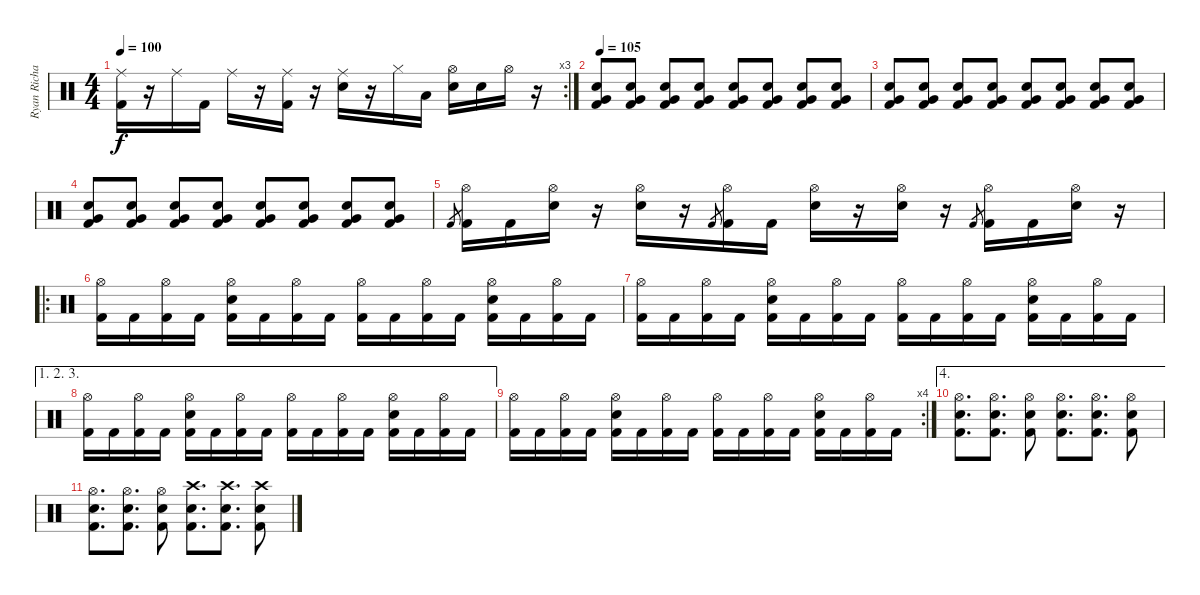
\track ("Ryan Richards" "Ryan Richa") {instrument percussion}
\staff {score}
\articulation defaults
\rc 3
\ts (4 4)
\tempo 100
\clef neutral
\ks c
("Ride (middle)" "Kick (hit) 2").16{dy f} r.16 "Ride (middle)".16 "Kick (hit) 2".16 "Ride (middle)".16 r.16 ("Ride (middle)" "Kick (hit) 2").16 r.16 ("Ride (middle)" "Snare (hit) 2").16 r.16 "Hi-Hat (closed)".16 "Low Floor Tom (hit)".16 ("Hi-Hat (open)" "Snare (hit) 2").16 "Snare (hit) 2".16 "Hi-Hat (open)".16 r.16 |
\tempo 105
("Snare (hit) 2" "Very Low Tom (hit)" "Kick (hit) 2").8 ("Snare (hit) 2" "Very Low Tom (hit)" "Kick (hit) 2").8 ("Snare (hit) 2" "Very Low Tom (hit)" "Kick (hit) 2").8 ("Snare (hit) 2" "Very Low Tom (hit)" "Kick (hit) 2").8 ("Snare (hit) 2" "Very Low Tom (hit)" "Kick (hit) 2").8 ("Snare (hit) 2" "Very Low Tom (hit)" "Kick (hit) 2").8 ("Snare (hit) 2" "Very Low Tom (hit)" "Kick (hit) 2").8 ("Snare (hit) 2" "Very Low Tom (hit)" "Kick (hit) 2").8 |
("Snare (hit) 2" "Very Low Tom (hit)" "Kick (hit) 2").8 ("Snare (hit) 2" "Very Low Tom (hit)" "Kick (hit) 2").8 ("Snare (hit) 2" "Very Low Tom (hit)" "Kick (hit) 2").8 ("Snare (hit) 2" "Very Low Tom (hit)" "Kick (hit) 2").8 ("Snare (hit) 2" "Very Low Tom (hit)" "Kick (hit) 2").8 ("Snare (hit) 2" "Very Low Tom (hit)" "Kick (hit) 2").8 ("Snare (hit) 2" "Very Low Tom (hit)" "Kick (hit) 2").8 ("Snare (hit) 2" "Very Low Tom (hit)" "Kick (hit) 2").8 |
("Snare (hit) 2" "Very Low Tom (hit)" "Kick (hit) 2").8 ("Snare (hit) 2" "Very Low Tom (hit)" "Kick (hit) 2").8 ("Snare (hit) 2" "Very Low Tom (hit)" "Kick (hit) 2").8 ("Snare (hit) 2" "Very Low Tom (hit)" "Kick (hit) 2").8 ("Snare (hit) 2" "Very Low Tom (hit)" "Kick (hit) 2").8 ("Snare (hit) 2" "Very Low Tom (hit)" "Kick (hit) 2").8 ("Snare (hit) 2" "Very Low Tom (hit)" "Kick (hit) 2").8 ("Snare (hit) 2" "Very Low Tom (hit)" "Kick (hit) 2").8 |
"Kick (hit) 2".8{gr} ("Hi-Hat (open)" "Kick (hit) 2").16 "Kick (hit) 2".16 ("Hi-Hat (open)" "Snare (hit) 2").16 r.16 ("Hi-Hat (open)" "Snare (hit) 2").16 r.16 "Kick (hit) 2".8{gr} ("Hi-Hat (open)" "Kick (hit) 2").16 "Kick (hit) 2".16 ("Hi-Hat (open)" "Snare (hit) 2").16 r.16 ("Hi-Hat (open)" "Snare (hit) 2").16 r.16 "Kick (hit) 2".8{gr} ("Hi-Hat (open)" "Kick (hit) 2").16 "Kick (hit) 2".16 ("Hi-Hat (open)" "Snare (hit) 2").16 r.16 |
\ro
("Hi-Hat (open)" "Kick (hit) 2").16 "Kick (hit) 2".16 ("Hi-Hat (open)" "Kick (hit) 2").16 "Kick (hit) 2".16 ("Hi-Hat (open)" "Snare (hit) 2" "Kick (hit) 2").16 "Kick (hit) 2".16 ("Hi-Hat (open)" "Kick (hit) 2").16 "Kick (hit) 2".16 ("Hi-Hat (open)" "Kick (hit) 2").16 "Kick (hit) 2".16 ("Hi-Hat (open)" "Kick (hit) 2").16 "Kick (hit) 2".16 ("Hi-Hat (open)" "Snare (hit) 2" "Kick (hit) 2").16 "Kick (hit) 2".16 ("Hi-Hat (open)" "Kick (hit) 2").16 "Kick (hit) 2".16 |
("Hi-Hat (open)" "Kick (hit) 2").16 "Kick (hit) 2".16 ("Hi-Hat (open)" "Kick (hit) 2").16 "Kick (hit) 2".16 ("Hi-Hat (open)" "Snare (hit) 2" "Kick (hit) 2").16 "Kick (hit) 2".16 ("Hi-Hat (open)" "Kick (hit) 2").16 "Kick (hit) 2".16 ("Hi-Hat (open)" "Kick (hit) 2").16 "Kick (hit) 2".16 ("Hi-Hat (open)" "Kick (hit) 2").16 "Kick (hit) 2".16 ("Hi-Hat (open)" "Snare (hit) 2" "Kick (hit) 2").16 "Kick (hit) 2".16 ("Hi-Hat (open)" "Kick (hit) 2").16 "Kick (hit) 2".16 |
\ae (1 2 3)
("Hi-Hat (open)" "Kick (hit) 2").16 "Kick (hit) 2".16 ("Hi-Hat (open)" "Kick (hit) 2").16 "Kick (hit) 2".16 ("Hi-Hat (open)" "Snare (hit) 2" "Kick (hit) 2").16 "Kick (hit) 2".16 ("Hi-Hat (open)" "Kick (hit) 2").16 "Kick (hit) 2".16 ("Hi-Hat (open)" "Kick (hit) 2").16 "Kick (hit) 2".16 ("Hi-Hat (open)" "Kick (hit) 2").16 "Kick (hit) 2".16 ("Hi-Hat (open)" "Snare (hit) 2" "Kick (hit) 2").16 "Kick (hit) 2".16 ("Hi-Hat (open)" "Kick (hit) 2").16 "Kick (hit) 2".16 |
\rc 4
("Hi-Hat (open)" "Kick (hit) 2").16 "Kick (hit) 2".16 ("Hi-Hat (open)" "Kick (hit) 2").16 "Kick (hit) 2".16 ("Hi-Hat (open)" "Snare (hit) 2" "Kick (hit) 2").16 "Kick (hit) 2".16 ("Hi-Hat (open)" "Kick (hit) 2").16 "Kick (hit) 2".16 ("Hi-Hat (open)" "Kick (hit) 2").16 "Kick (hit) 2".16 ("Hi-Hat (open)" "Kick (hit) 2").16 "Kick (hit) 2".16 ("Hi-Hat (open)" "Snare (hit) 2" "Kick (hit) 2").16 "Kick (hit) 2".16 ("Hi-Hat (open)" "Kick (hit) 2").16 "Kick (hit) 2".16 |
\ae 4
("Hi-Hat (open)" "Snare (hit) 2" "Kick (hit) 2").8{d} ("Hi-Hat (open)" "Snare (hit) 2" "Kick (hit) 2").8{d} ("Hi-Hat (open)" "Snare (hit) 2" "Kick (hit) 2").8 ("Hi-Hat (open)" "Snare (hit) 2" "Kick (hit) 2").8{d} ("Hi-Hat (open)" "Snare (hit) 2" "Kick (hit) 2").8{d} ("Hi-Hat (open)" "Snare (hit) 2" "Kick (hit) 2").8 |
("Hi-Hat (open)" "Snare (hit) 2" "Kick (hit) 2").8{d} ("Hi-Hat (open)" "Snare (hit) 2" "Kick (hit) 2").8{d} ("Hi-Hat (open)" "Snare (hit) 2" "Kick (hit) 2").8 ("Crash high (hit)" "Snare (hit) 2" "Kick (hit) 2").8{d} ("Crash high (hit)" "Snare (hit) 2" "Kick (hit) 2").8{d} ("Crash high (hit)" "Snare (hit) 2" "Kick (hit) 2").8
